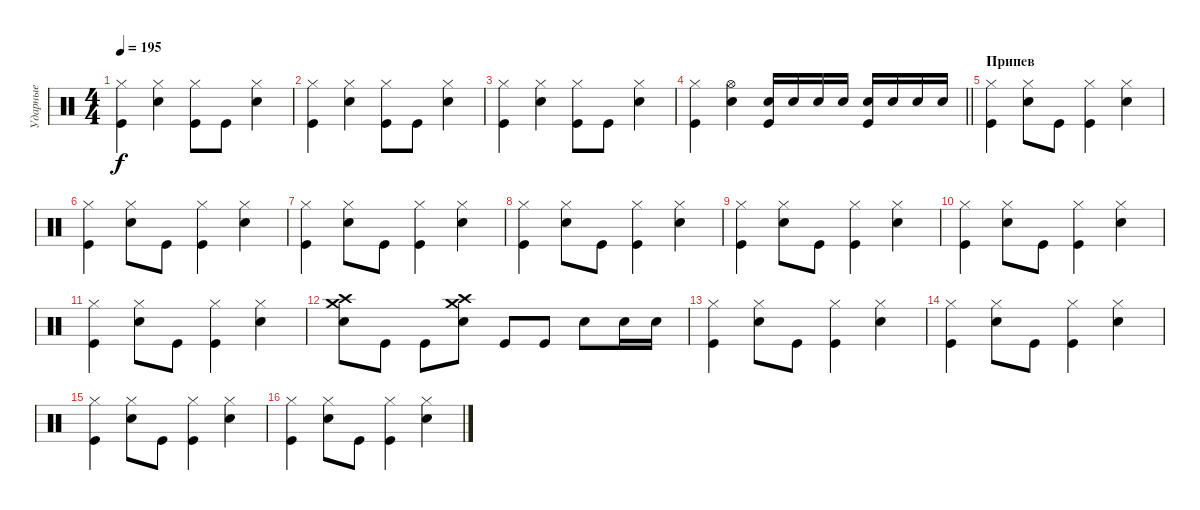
\track ("Ударные" "Ударные") {instrument percussion}
\staff {score}
\articulation defaults
\ts (4 4)
\tempo 195
\clef neutral
\ks c
("Hi-Hat (closed)" "Kick (hit)").4{dy f} ("Hi-Hat (closed)" "Electric Snare (hit)").4 ("Hi-Hat (closed)" "Kick (hit)").8 "Kick (hit)".8 ("Hi-Hat (closed)" "Electric Snare (hit)").4 |
("Hi-Hat (closed)" "Kick (hit)").4 ("Hi-Hat (closed)" "Electric Snare (hit)").4 ("Hi-Hat (closed)" "Kick (hit)").8 "Kick (hit)".8 ("Hi-Hat (closed)" "Electric Snare (hit)").4 |
("Hi-Hat (closed)" "Kick (hit)").4 ("Hi-Hat (closed)" "Electric Snare (hit)").4 ("Hi-Hat (closed)" "Kick (hit)").8 "Kick (hit)".8 ("Hi-Hat (closed)" "Electric Snare (hit)").4 |
\barLineRight lightlight
("Kick (hit)" "Hi-Hat (closed)").4 ("Hi-Hat (open)" "Electric Snare (hit)").4 ("Kick (hit)" "Electric Snare (hit)").16 "Electric Snare (hit)".16 "Electric Snare (hit)".16 "Electric Snare (hit)".16 ("Kick (hit)" "Electric Snare (hit)").16 "Electric Snare (hit)".16 "Electric Snare (hit)".16 "Electric Snare (hit)".16 |
\section ("" "Припев")
("Hi-Hat (closed)" "Kick (hit)").4 ("Hi-Hat (closed)" "Electric Snare (hit)").8 "Kick (hit)".8 ("Hi-Hat (closed)" "Kick (hit)").4 ("Hi-Hat (closed)" "Electric Snare (hit)").4 |
("Hi-Hat (closed)" "Kick (hit)").4 ("Hi-Hat (closed)" "Electric Snare (hit)").8 "Kick (hit)".8 ("Hi-Hat (closed)" "Kick (hit)").4 ("Hi-Hat (closed)" "Electric Snare (hit)").4 |
("Hi-Hat (closed)" "Kick (hit)").4 ("Hi-Hat (closed)" "Electric Snare (hit)").8 "Kick (hit)".8 ("Hi-Hat (closed)" "Kick (hit)").4 ("Hi-Hat (closed)" "Electric Snare (hit)").4 |
("Hi-Hat (closed)" "Kick (hit)").4 ("Hi-Hat (closed)" "Electric Snare (hit)").8 "Kick (hit)".8 ("Hi-Hat (closed)" "Kick (hit)").4 ("Hi-Hat (closed)" "Electric Snare (hit)").4 |
("Hi-Hat (closed)" "Kick (hit)").4 ("Hi-Hat (closed)" "Electric Snare (hit)").8 "Kick (hit)".8 ("Hi-Hat (closed)" "Kick (hit)").4 ("Hi-Hat (closed)" "Electric Snare (hit)").4 |
("Hi-Hat (closed)" "Kick (hit)").4 ("Hi-Hat (closed)" "Electric Snare (hit)").8 "Kick (hit)".8 ("Hi-Hat (closed)" "Kick (hit)").4 ("Hi-Hat (closed)" "Electric Snare (hit)").4 |
("Hi-Hat (closed)" "Kick (hit)").4 ("Hi-Hat (closed)" "Electric Snare (hit)").8 "Kick (hit)".8 ("Hi-Hat (closed)" "Kick (hit)").4 ("Hi-Hat (closed)" "Electric Snare (hit)").4 |
("Crash medium (hit)" "Crash high (hit)" "Electric Snare (hit)").8 "Kick (hit)".8 "Kick (hit)".8 ("Electric Snare (hit)" "Crash high (hit)" "Crash medium (hit)").8 "Kick (hit)".8 "Kick (hit)".8 "Electric Snare (hit)".8 "Electric Snare (hit)".16 "Electric Snare (hit)".16 |
("Hi-Hat (closed)" "Kick (hit)").4 ("Hi-Hat (closed)" "Electric Snare (hit)").8 "Kick (hit)".8 ("Hi-Hat (closed)" "Kick (hit)").4 ("Hi-Hat (closed)" "Electric Snare (hit)").4 |
("Hi-Hat (closed)" "Kick (hit)").4 ("Hi-Hat (closed)" "Electric Snare (hit)").8 "Kick (hit)".8 ("Hi-Hat (closed)" "Kick (hit)").4 ("Hi-Hat (closed)" "Electric Snare (hit)").4 |
("Hi-Hat (closed)" "Kick (hit)").4 ("Hi-Hat (closed)" "Electric Snare (hit)").8 "Kick (hit)".8 ("Hi-Hat (closed)" "Kick (hit)").4 ("Hi-Hat (closed)" "Electric Snare (hit)").4 |
("Hi-Hat (closed)" "Kick (hit)").4 ("Hi-Hat (closed)" "Electric Snare (hit)").8 "Kick (hit)".8 ("Hi-Hat (closed)" "Kick (hit)").4 ("Hi-Hat (closed)" "Electric Snare (hit)").4
